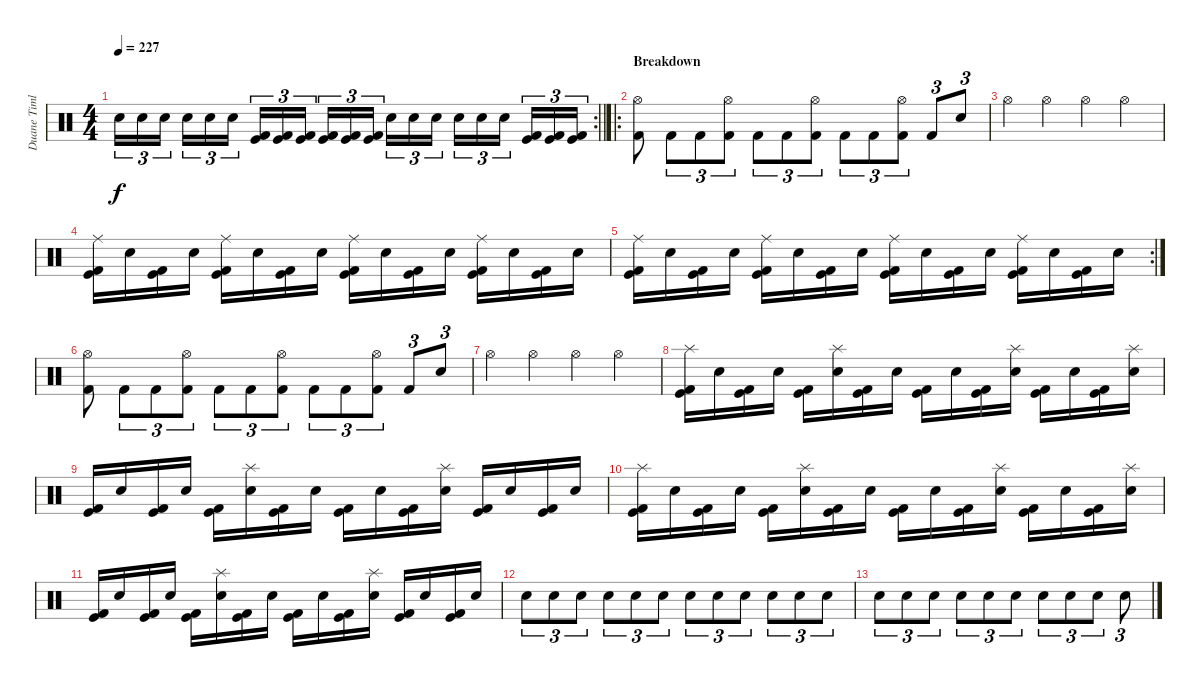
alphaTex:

\track ("Duane Timlin" "Duane Timl") {instrument percussion}
\staff {score}
\articulation defaults
\rc 2
\ts (4 4)
\tempo 227
\clef neutral
\barLineRight lightlight
\ks c "Snare (hit) 2".16{tu (3 2) dy f} "Snare (hit) 2".16{tu (3 2)} "Snare (hit) 2".16{tu (3 2) beam splitsecondary} "Snare (hit) 2".16{tu (3 2)} "Snare (hit) 2".16{tu (3 2)} "Snare (hit) 2".16{tu (3 2)}
("Kick (hit)" "Kick (hit) 2").16{tu (3 2)} ("Kick (hit)" "Kick (hit) 2").16{tu (3 2)} ("Kick (hit)" "Kick (hit) 2").16{tu (3 2) beam splitsecondary} ("Kick (hit)" "Kick (hit) 2").16{tu (3 2)} ("Kick (hit)" "Kick (hit) 2").16{tu (3 2)} ("Kick (hit)" "Kick (hit) 2").16{tu (3 2)} "Snare (hit) 2".16{tu (3 2)} "Snare (hit) 2".16{tu (3 2)} "Snare (hit) 2".16{tu (3 2) beam splitsecondary} "Snare (hit) 2".16{tu (3 2)} "Snare (hit) 2".16{tu (3 2)} "Snare (hit) 2".16{tu (3 2)} ("Kick (hit)" "Kick (hit) 2").16{tu (3 2)} ("Kick (hit)" "Kick (hit) 2").16{tu (3 2)} ("Kick (hit)" "Kick (hit) 2").16{tu (3 2)} |
\ro
\section ("" "Breakdown")
("Hi-Hat (open)" "Kick (hit) 2").8 "Kick (hit) 2".8{tu (3 2)} "Kick (hit) 2".8{tu (3 2)} ("Hi-Hat (open)" "Kick (hit) 2").8{tu (3 2)} "Kick (hit) 2".8{tu (3 2)} "Kick (hit) 2".8{tu (3 2)} ("Hi-Hat (open)" "Kick (hit) 2").8{tu (3 2)} "Kick (hit) 2".8{tu (3 2)} "Kick (hit) 2".8{tu (3 2)} ("Hi-Hat (open)" "Kick (hit) 2").8{tu (3 2)} "Kick (hit) 2".8{tu (3 2)} "Snare (hit) 2".8{tu (3 2)} |
"Hi-Hat (open)".4 "Hi-Hat (open)".4 "Hi-Hat (open)".4 "Hi-Hat (open)".4 |
("Ride (middle)" "Kick (hit)" "Kick (hit) 2").16 "Snare (hit) 2".16 ("Kick (hit)" "Kick (hit) 2").16 "Snare (hit) 2".16 ("Ride (middle)" "Kick (hit)" "Kick (hit) 2").16 "Snare (hit) 2".16 ("Kick (hit)" "Kick (hit) 2").16 "Snare (hit) 2".16 ("Ride (middle)" "Kick (hit)" "Kick (hit) 2").16 "Snare (hit) 2".16 ("Kick (hit)" "Kick (hit) 2").16 "Snare (hit) 2".16 ("Ride (middle)" "Kick (hit)" "Kick (hit) 2").16 "Snare (hit) 2".16 ("Kick (hit)" "Kick (hit) 2").16 "Snare (hit) 2".16 |
\rc 2
("Ride (middle)" "Kick (hit)" "Kick (hit) 2").16 "Snare (hit) 2".16 ("Kick (hit)" "Kick (hit) 2").16 "Snare (hit) 2".16 ("Ride (middle)" "Kick (hit)" "Kick (hit) 2").16 "Snare (hit) 2".16 ("Kick (hit)" "Kick (hit) 2").16 "Snare (hit) 2".16 ("Ride (middle)" "Kick (hit)" "Kick (hit) 2").16 "Snare (hit) 2".16 ("Kick (hit)" "Kick (hit) 2").16 "Snare (hit) 2".16 ("Ride (middle)" "Kick (hit)" "Kick (hit) 2").16 "Snare (hit) 2".16 ("Kick (hit)" "Kick (hit) 2").16 "Snare (hit) 2".16 |
("Hi-Hat (open)" "Kick (hit) 2").8 "Kick (hit) 2".8{tu (3 2)} "Kick (hit) 2".8{tu (3 2)} ("Hi-Hat (open)" "Kick (hit) 2").8{tu (3 2)} "Kick (hit) 2".8{tu (3 2)} "Kick (hit) 2".8{tu (3 2)} ("Hi-Hat (open)" "Kick (hit) 2").8{tu (3 2)} "Kick (hit) 2".8{tu (3 2)} "Kick (hit) 2".8{tu (3 2)} ("Hi-Hat (open)" "Kick (hit) 2").8{tu (3 2)} "Kick (hit) 2".8{tu (3 2)} "Snare (hit) 2".8{tu (3 2)} |
"Hi-Hat (open)".4 "Hi-Hat (open)".4 "Hi-Hat (open)".4 "Hi-Hat (open)".4 |
("Splash (hit)" "Kick (hit)" "Kick (hit) 2").16 "Snare (hit) 2".16 ("Kick (hit)" "Kick (hit) 2").16 "Snare (hit) 2".16 ("Kick (hit)" "Kick (hit) 2").16 ("Splash (hit)" "Snare (hit) 2").16 ("Kick (hit)" "Kick (hit) 2").16 "Snare (hit) 2".16 ("Kick (hit)" "Kick (hit) 2").16 "Snare (hit) 2".16 ("Kick (hit)" "Kick (hit) 2").16 ("Splash (hit)" "Snare (hit) 2").16 ("Kick (hit)" "Kick (hit) 2").16 "Snare (hit) 2".16 ("Kick (hit)" "Kick (hit) 2").16 ("Splash (hit)" "Snare (hit) 2").16 |
("Kick (hit)" "Kick (hit) 2").16 "Snare (hit) 2".16 ("Kick (hit)" "Kick (hit) 2").16 "Snare (hit) 2".16 ("Kick (hit)" "Kick (hit) 2").16 ("Splash (hit)" "Snare (hit) 2").16 ("Kick (hit)" "Kick (hit) 2").16 "Snare (hit) 2".16 ("Kick (hit)" "Kick (hit) 2").16 "Snare (hit) 2".16 ("Kick (hit)" "Kick (hit) 2").16 ("Splash (hit)" "Snare (hit) 2").16 ("Kick (hit)" "Kick (hit) 2").16 "Snare (hit) 2".16 ("Kick (hit)" "Kick (hit) 2").16 "Snare (hit) 2".16 |
("Splash (hit)" "Kick (hit)" "Kick (hit) 2").16 "Snare (hit) 2".16 ("Kick (hit)" "Kick (hit) 2").16 "Snare (hit) 2".16 ("Kick (hit)" "Kick (hit) 2").16 ("Splash (hit)" "Snare (hit) 2").16 ("Kick (hit)" "Kick (hit) 2").16 "Snare (hit) 2".16 ("Kick (hit)" "Kick (hit) 2").16 "Snare (hit) 2".16 ("Kick (hit)" "Kick (hit) 2").16 ("Splash (hit)" "Snare (hit) 2").16 ("Kick (hit)" "Kick (hit) 2").16 "Snare (hit) 2".16 ("Kick (hit)" "Kick (hit) 2").16 ("Splash (hit)" "Snare (hit) 2").16 |
("Kick (hit)" "Kick (hit) 2").16 "Snare (hit) 2".16 ("Kick (hit)" "Kick (hit) 2").16 "Snare (hit) 2".16 ("Kick (hit)" "Kick (hit) 2").16 ("Splash (hit)" "Snare (hit) 2").16 ("Kick (hit)" "Kick (hit) 2").16 "Snare (hit) 2".16 ("Kick (hit)" "Kick (hit) 2").16 "Snare (hit) 2".16 ("Kick (hit)" "Kick (hit) 2").16 ("Splash (hit)" "Snare (hit) 2").16 ("Kick (hit)" "Kick (hit) 2").16 "Snare (hit) 2".16 ("Kick (hit)" "Kick (hit) 2").16 "Snare (hit) 2".16 |
"Snare (hit) 2".8{tu (3 2)} "Snare (hit) 2".8{tu (3 2)} "Snare (hit) 2".8{tu (3 2)} "Snare (hit) 2".8{tu (3 2)} "Snare (hit) 2".8{tu (3 2)} "Snare (hit) 2".8{tu (3 2)} "Snare (hit) 2".8{tu (3 2)} "Snare (hit) 2".8{tu (3 2)} "Snare (hit) 2".8{tu (3 2)} "Snare (hit) 2".8{tu (3 2)} "Snare (hit) 2".8{tu (3 2)} "Snare (hit) 2".8{tu (3 2)} |
"Snare (hit) 2".8{tu (3 2)} "Snare (hit) 2".8{tu (3 2)} "Snare (hit) 2".8{tu (3 2)} "Snare (hit) 2".8{tu (3 2)} "Snare (hit) 2".8{tu (3 2)} "Snare (hit) 2".8{tu (3 2)} "Snare (hit) 2".8{tu (3 2)} "Snare (hit) 2".8{tu (3 2)} "Snare (hit) 2".8{tu (3 2)} "Snare (hit) 2".8{tu (3 2)}
